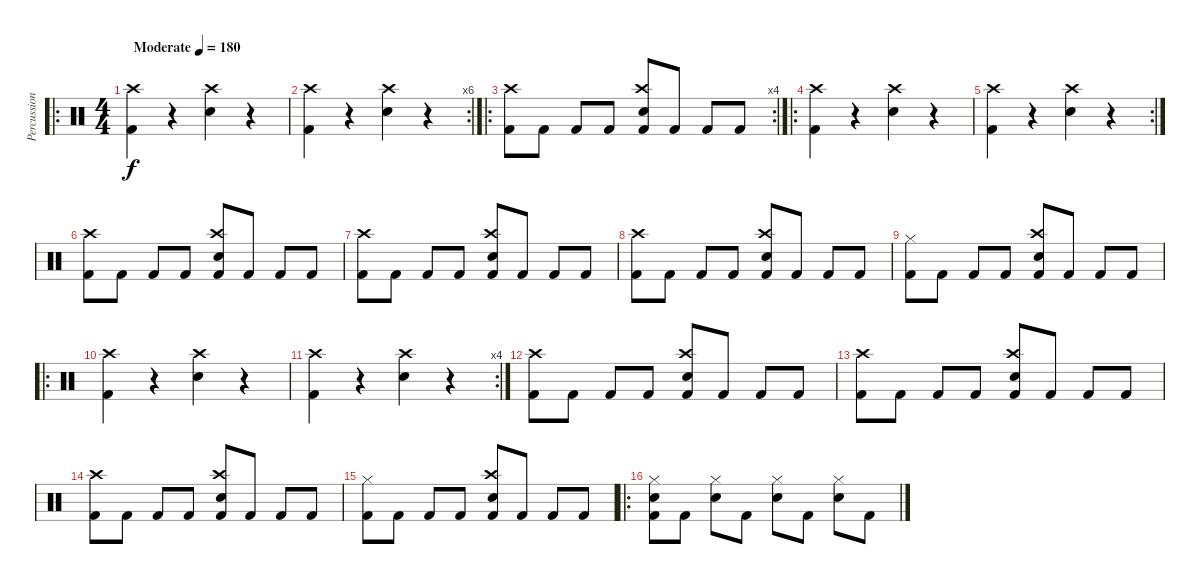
\track ("Percussion" "Percussion") {instrument percussion}
\staff {score}
\articulation defaults
\ro
\ts (4 4)
\tempo (180 "Moderate")
\clef neutral
\ks c
("Kick (hit) 2" "Crash high (hit)").4{dy f} r.4 ("Snare (hit) 2" "Crash high (hit)").4 r.4 |
\rc 6
("Kick (hit) 2" "Crash high (hit)").4 r.4 ("Snare (hit) 2" "Crash high (hit)").4 r.4 |
\ro
\rc 4
("Kick (hit) 2" "Crash high (hit)").8 "Kick (hit) 2".8 "Kick (hit) 2".8 "Kick (hit) 2".8 ("Kick (hit) 2" "Snare (hit) 2" "Crash high (hit)").8 "Kick (hit) 2".8 "Kick (hit) 2".8 "Kick (hit) 2".8 |
\ro
("Kick (hit) 2" "Crash high (hit)").4 r.4 ("Snare (hit) 2" "Crash high (hit)").4 r.4 |
\rc 2
("Kick (hit) 2" "Crash high (hit)").4 r.4 ("Snare (hit) 2" "Crash high (hit)").4 r.4 |
("Kick (hit) 2" "Crash high (hit)").8 "Kick (hit) 2".8 "Kick (hit) 2".8 "Kick (hit) 2".8 ("Kick (hit) 2" "Snare (hit) 2" "Crash high (hit)").8 "Kick (hit) 2".8 "Kick (hit) 2".8 "Kick (hit) 2".8 |
("Kick (hit) 2" "Crash high (hit)").8 "Kick (hit) 2".8 "Kick (hit) 2".8 "Kick (hit) 2".8 ("Kick (hit) 2" "Snare (hit) 2" "Crash high (hit)").8 "Kick (hit) 2".8 "Kick (hit) 2".8 "Kick (hit) 2".8 |
("Kick (hit) 2" "Crash high (hit)").8 "Kick (hit) 2".8 "Kick (hit) 2".8 "Kick (hit) 2".8 ("Kick (hit) 2" "Snare (hit) 2" "Crash high (hit)").8 "Kick (hit) 2".8 "Kick (hit) 2".8 "Kick (hit) 2".8 |
("Kick (hit) 2" "Hi-Hat (closed)").8 "Kick (hit) 2".8 "Kick (hit) 2".8 "Kick (hit) 2".8 ("Kick (hit) 2" "Snare (hit) 2" "Crash high (hit)").8 "Kick (hit) 2".8 "Kick (hit) 2".8 "Kick (hit) 2".8 |
\ro
("Kick (hit) 2" "Crash high (hit)").4 r.4 ("Snare (hit) 2" "Crash high (hit)").4 r.4 |
\rc 4
("Kick (hit) 2" "Crash high (hit)").4 r.4 ("Snare (hit) 2" "Crash high (hit)").4 r.4 |
("Kick (hit) 2" "Crash high (hit)").8 "Kick (hit) 2".8 "Kick (hit) 2".8 "Kick (hit) 2".8 ("Kick (hit) 2" "Snare (hit) 2" "Crash high (hit)").8 "Kick (hit) 2".8 "Kick (hit) 2".8 "Kick (hit) 2".8 |
("Kick (hit) 2" "Crash high (hit)").8 "Kick (hit) 2".8 "Kick (hit) 2".8 "Kick (hit) 2".8 ("Kick (hit) 2" "Snare (hit) 2" "Crash high (hit)").8 "Kick (hit) 2".8 "Kick (hit) 2".8 "Kick (hit) 2".8 |
("Kick (hit) 2" "Crash high (hit)").8 "Kick (hit) 2".8 "Kick (hit) 2".8 "Kick (hit) 2".8 ("Kick (hit) 2" "Snare (hit) 2" "Crash high (hit)").8 "Kick (hit) 2".8 "Kick (hit) 2".8 "Kick (hit) 2".8 |
("Kick (hit) 2" "Hi-Hat (closed)").8 "Kick (hit) 2".8 "Kick (hit) 2".8 "Kick (hit) 2".8 ("Kick (hit) 2" "Snare (hit) 2" "Crash high (hit)").8 "Kick (hit) 2".8 "Kick (hit) 2".8 "Kick (hit) 2".8 |
\ro
("Kick (hit) 2" "Snare (hit) 2" "Hi-Hat (closed)").8 "Kick (hit) 2".8 ("Snare (hit) 2" "Hi-Hat (closed)").8 "Kick (hit) 2".8 ("Snare (hit) 2" "Hi-Hat (closed)").8 "Kick (hit) 2".8 ("Snare (hit) 2" "Hi-Hat (closed)").8 "Kick (hit) 2".8
